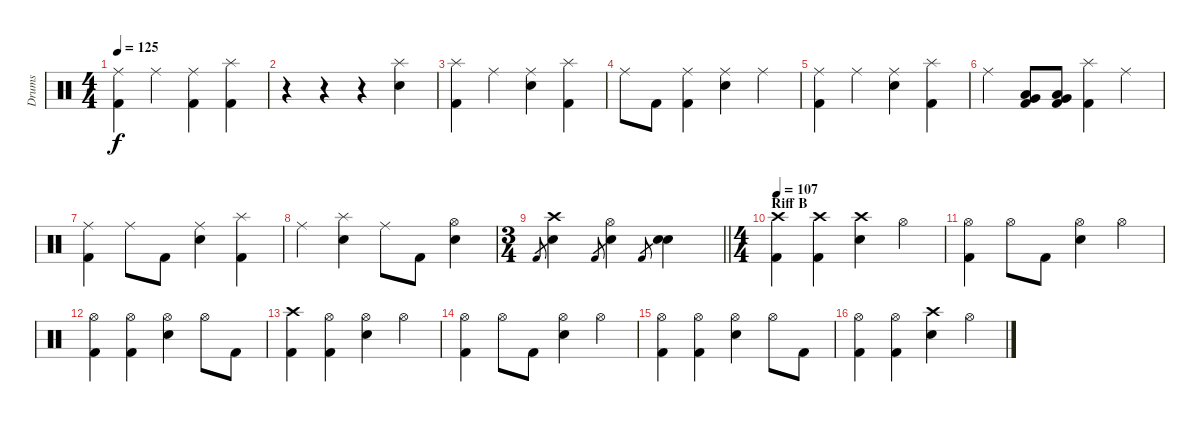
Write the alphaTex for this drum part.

\track ("Drums" "Drums") {instrument percussion}
\staff {score}
\articulation defaults
\ts (4 4)
\tempo 125
\clef neutral
\ks c
("Ride (middle)" "Kick (hit) 2").4{dy f} "Ride (middle)".4 ("Ride (middle)" "Kick (hit) 2").4 ("Splash (hit)" "Kick (hit) 2").4 |
r.4 r.4 r.4 ("Splash (hit)" "Electric Snare (hit)").4 |
("Splash (hit)" "Kick (hit) 2").4 "Ride (middle)".4 ("Ride (middle)" "Electric Snare (hit)").4 ("Splash (hit)" "Kick (hit) 2").4 |
"Ride (middle)".8 "Kick (hit) 2".8 ("Ride (middle)" "Kick (hit) 2").4 ("Ride (middle)" "Electric Snare (hit)").4 "Ride (middle)".4 |
("Ride (middle)" "Kick (hit) 2").4 "Ride (middle)".4 ("Ride (middle)" "Electric Snare (hit)").4 ("Splash (hit)" "Kick (hit) 2").4 |
"Ride (middle)".4 ("Low Tom (hit)" "Very Low Tom (hit)" "Kick (hit) 2").8 ("Low Tom (hit)" "Very Low Tom (hit)" "Kick (hit) 2").8 ("Splash (hit)" "Kick (hit) 2").4 "Ride (middle)".4 |
("Ride (middle)" "Kick (hit) 2").4 "Ride (middle)".8 "Kick (hit) 2".8 ("Ride (middle)" "Electric Snare (hit)").4 ("Splash (hit)" "Kick (hit) 2").4 |
"Ride (middle)".4 ("Splash (hit)" "Electric Snare (hit)").4 "Ride (middle)".8 "Kick (hit) 2".8 ("Hi-Hat (open)" "Electric Snare (hit)").4 |
\ts (3 4)
\barLineRight lightlight "Kick (hit) 2".8{gr}
("Crash high (hit)" "Electric Snare (hit)").4 "Kick (hit) 2".8{gr} ("Hi-Hat (open)" "Electric Snare (hit)").4 "Kick (hit) 2".8{gr} ("Snare (hit) 2" "Electric Snare (hit)").4 |
\ts (4 4)
\section ("" "Riff B")
\tempo 107
("Crash high (hit)" "Kick (hit) 2").4 ("Crash high (hit)" "Kick (hit) 2").4 ("Crash high (hit)" "Electric Snare (hit)").4 "Hi-Hat (open)".4 |
("Hi-Hat (open)" "Kick (hit) 2").4 "Hi-Hat (open)".8 "Kick (hit) 2".8 ("Hi-Hat (open)" "Electric Snare (hit)").4 "Hi-Hat (open)".4 |
("Hi-Hat (open)" "Kick (hit) 2").4 ("Hi-Hat (open)" "Kick (hit) 2").4 ("Hi-Hat (open)" "Electric Snare (hit)").4 "Hi-Hat (open)".8 "Kick (hit) 2".8 |
("Crash high (hit)" "Kick (hit) 2").4 ("Hi-Hat (open)" "Kick (hit) 2").4 ("Hi-Hat (open)" "Electric Snare (hit)").4 "Hi-Hat (open)".4 |
("Hi-Hat (open)" "Kick (hit) 2").4 "Hi-Hat (open)".8 "Kick (hit) 2".8 ("Hi-Hat (open)" "Electric Snare (hit)").4 "Hi-Hat (open)".4 |
("Hi-Hat (open)" "Kick (hit) 2").4 ("Hi-Hat (open)" "Kick (hit) 2").4 ("Hi-Hat (open)" "Electric Snare (hit)").4 "Hi-Hat (open)".8 "Kick (hit) 2".8 |
("Hi-Hat (open)" "Kick (hit) 2").4 ("Hi-Hat (open)" "Kick (hit) 2").4 ("Crash high (hit)" "Electric Snare (hit)").4 "Hi-Hat (open)".4
